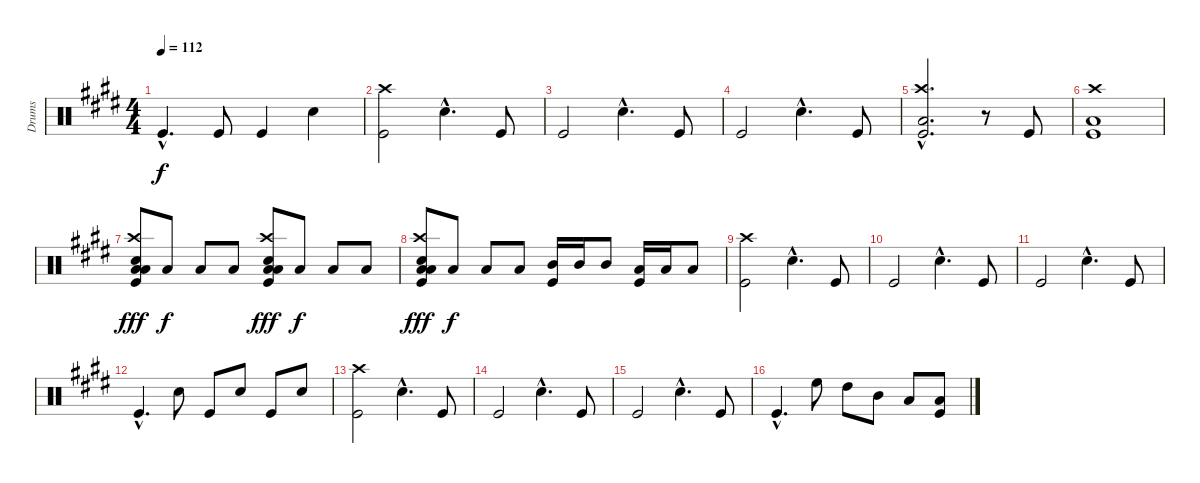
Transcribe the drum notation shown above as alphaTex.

\track ("Drums" "Drums") {instrument percussion}
\staff {score}
\articulation defaults
\ts (4 4)
\tempo 112
\clef neutral
\ks e "Kick (hit)"{hac}.4{d dy f} "Kick (hit)".8 "Kick (hit)".4 "Snare (hit) 2".4
|
("Crash high (hit)" "Kick (hit)").2 "Snare (hit) 2"{hac}.4{d} "Kick (hit)".8 |
"Kick (hit)".2 "Snare (hit) 2"{hac}.4{d} "Kick (hit)".8 |
"Kick (hit)".2 "Snare (hit) 2"{hac}.4{d} "Kick (hit)".8 |
("Crash high (hit)"{hac} "Low Floor Tom (hit)"{hac} "Kick (hit)"{hac}).2{d} r.8 "Kick (hit)".8 |
("Crash high (hit)" "Low Floor Tom (hit)" "Kick (hit)").1 |
("Crash high (hit)" "Low Tom (hit)" "Low Floor Tom (hit)" "Snare (hit) 2" "Kick (hit)").8{dy fff} "Low Floor Tom (hit)".8{dy f} "Low Floor Tom (hit)".8 "Low Floor Tom (hit)".8 ("Crash high (hit)" "Low Tom (hit)" "Low Floor Tom (hit)" "Snare (hit) 2" "Kick (hit)").8{dy fff} "Low Floor Tom (hit)".8{dy f} "Low Floor Tom (hit)".8 "Low Floor Tom (hit)".8 |
("Crash high (hit)" "Low Tom (hit)" "Low Floor Tom (hit)" "Snare (hit) 2" "Kick (hit)").8{dy fff} "Low Floor Tom (hit)".8{dy f} "Low Floor Tom (hit)".8 "Low Floor Tom (hit)".8 ("Mid Tom (hit)" "Kick (hit)").16 "Mid Tom (hit)".16 "Mid Tom (hit)".8 ("Low Tom (hit)" "Kick (hit)").16 "Low Tom (hit)".16 "Low Tom (hit)".8 |
("Crash high (hit)" "Kick (hit)").2 "Snare (hit) 2"{hac}.4{d} "Kick (hit)".8 |
"Kick (hit)".2 "Snare (hit) 2"{hac}.4{d} "Kick (hit)".8 |
"Kick (hit)".2 "Snare (hit) 2"{hac}.4{d} "Kick (hit)".8 |
"Kick (hit)"{hac}.4{d} "Snare (hit) 2".8 "Kick (hit)".8 "Snare (hit) 2".8 "Kick (hit)".8 "Snare (hit) 2".8 |
("Crash high (hit)" "Kick (hit)").2 "Snare (hit) 2"{hac}.4{d} "Kick (hit)".8 |
"Kick (hit)".2 "Snare (hit) 2"{hac}.4{d} "Kick (hit)".8 |
"Kick (hit)".2 "Snare (hit) 2"{hac}.4{d} "Kick (hit)".8 |
"Kick (hit)"{hac}.4{d} "High Floor Tom (hit)".8 "High Tom (hit)".8 "Mid Tom (hit)".8 "Low Tom (hit)".8 ("Low Floor Tom (hit)" "Kick (hit)").8
